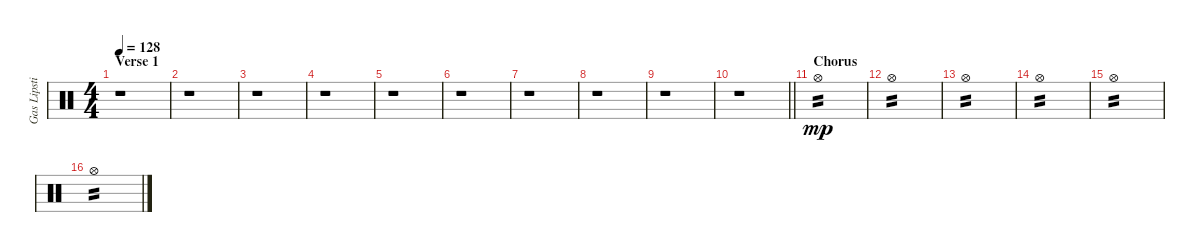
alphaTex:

\track ("Gas Lipstick (Drums)" "Gas Lipsti") {instrument percussion}
\staff {score}
\articulation defaults
\ts (4 4)
\section ("" "Verse 1")
\tempo 128
\clef neutral
\ks c
r.1{dy mp} |
r.1 |
r.1 |
r.1 |
r.1 |
r.1 |
r.1 |
r.1 |
r.1 |
\barLineRight lightlight
r.1 |
\section ("" "Chorus")
"Hi-Hat (open)".1{tp 2} |
"Hi-Hat (open)".1{tp 2} |
"Hi-Hat (open)".1{tp 2} |
"Hi-Hat (open)".1{tp 2} |
"Hi-Hat (open)".1{tp 2} |
"Hi-Hat (open)".1{tp 2}
